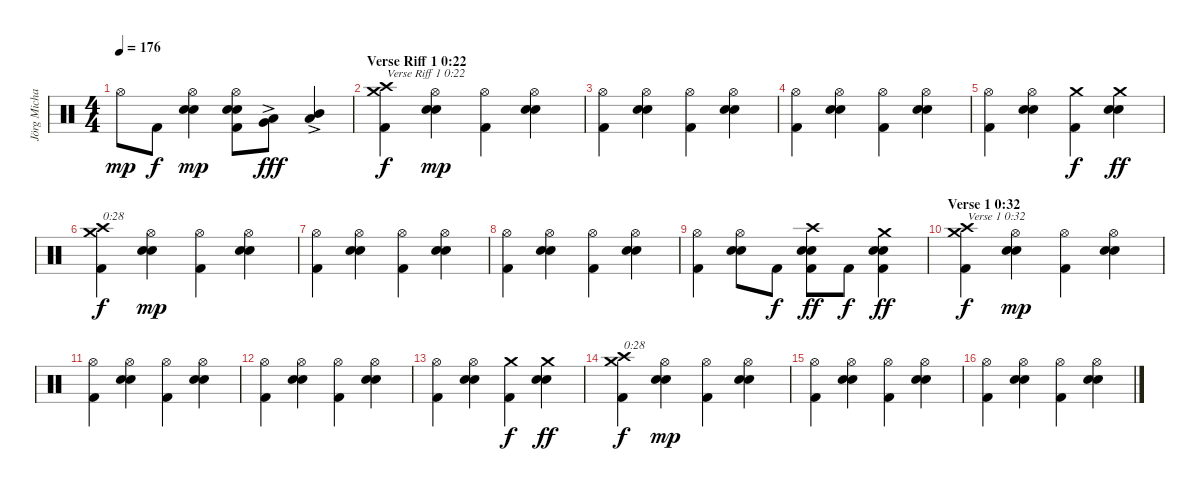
\track ("Jörg Michael" "Jörg Micha") {instrument percussion}
\staff {score}
\articulation defaults
\ts (4 4)
\tempo 176
\clef neutral
\ks c "Hi-Hat (open)".8{dy mp} "Kick (hit) 2".8{dy f}
("Snare (hit) 2" "Electric Snare (hit)" "Hi-Hat (open)").4{dy mp} ("Kick (hit) 2" "Snare (hit) 2" "Electric Snare (hit)" "Hi-Hat (open)").8 ("Very Low Tom (hit)"{ac} "Low Tom (hit)"{ac}).8{dy fff} ("Mid Tom (hit)"{ac} "Low Tom (hit)"{ac}).4 |
\section ("" "Verse Riff 1 0:22")
("Kick (hit) 2" "Crash high (hit)" "Crash medium (hit)").4{txt "Verse Riff 1 0:22" dy f} ("Snare (hit) 2" "Electric Snare (hit)" "Hi-Hat (open)").4{dy mp} ("Kick (hit) 2" "Hi-Hat (open)").4 ("Snare (hit) 2" "Electric Snare (hit)" "Hi-Hat (open)").4 |
("Kick (hit) 2" "Hi-Hat (open)").4 ("Snare (hit) 2" "Electric Snare (hit)" "Hi-Hat (open)").4 ("Kick (hit) 2" "Hi-Hat (open)").4 ("Snare (hit) 2" "Electric Snare (hit)" "Hi-Hat (open)").4 |
("Kick (hit) 2" "Hi-Hat (open)").4 ("Snare (hit) 2" "Electric Snare (hit)" "Hi-Hat (open)").4 ("Kick (hit) 2" "Hi-Hat (open)").4 ("Snare (hit) 2" "Electric Snare (hit)" "Hi-Hat (open)").4 |
("Kick (hit) 2" "Hi-Hat (open)").4 ("Snare (hit) 2" "Electric Snare (hit)" "Hi-Hat (open)").4 ("Kick (hit) 2" "Crash medium (hit)").4{dy f} ("Snare (hit) 2" "Electric Snare (hit)" "Crash medium (hit)").4{dy ff} |
("Kick (hit) 2" "Crash high (hit)" "Crash medium (hit)").4{txt "0:28" dy f} ("Snare (hit) 2" "Electric Snare (hit)" "Hi-Hat (open)").4{dy mp} ("Kick (hit) 2" "Hi-Hat (open)").4 ("Snare (hit) 2" "Electric Snare (hit)" "Hi-Hat (open)").4 |
("Kick (hit) 2" "Hi-Hat (open)").4 ("Snare (hit) 2" "Electric Snare (hit)" "Hi-Hat (open)").4 ("Kick (hit) 2" "Hi-Hat (open)").4 ("Snare (hit) 2" "Electric Snare (hit)" "Hi-Hat (open)").4 |
("Kick (hit) 2" "Hi-Hat (open)").4 ("Snare (hit) 2" "Electric Snare (hit)" "Hi-Hat (open)").4 ("Kick (hit) 2" "Hi-Hat (open)").4 ("Snare (hit) 2" "Electric Snare (hit)" "Hi-Hat (open)").4 |
("Kick (hit) 2" "Hi-Hat (open)").4 ("Snare (hit) 2" "Electric Snare (hit)" "Hi-Hat (open)").8 "Kick (hit) 2".8{dy f} ("Kick (hit) 2" "Snare (hit) 2" "Electric Snare (hit)" "Crash high (hit)").8{dy ff} "Kick (hit) 2".8{dy f} ("Kick (hit) 2" "Snare (hit) 2" "Electric Snare (hit)" "Crash medium (hit)").4{dy ff} |
\section ("" "Verse 1 0:32")
("Kick (hit) 2" "Crash high (hit)" "Crash medium (hit)").4{txt "Verse 1 0:32" dy f} ("Snare (hit) 2" "Electric Snare (hit)" "Hi-Hat (open)").4{dy mp} ("Kick (hit) 2" "Hi-Hat (open)").4 ("Snare (hit) 2" "Electric Snare (hit)" "Hi-Hat (open)").4 |
("Kick (hit) 2" "Hi-Hat (open)").4 ("Snare (hit) 2" "Electric Snare (hit)" "Hi-Hat (open)").4 ("Kick (hit) 2" "Hi-Hat (open)").4 ("Snare (hit) 2" "Electric Snare (hit)" "Hi-Hat (open)").4 |
("Kick (hit) 2" "Hi-Hat (open)").4 ("Snare (hit) 2" "Electric Snare (hit)" "Hi-Hat (open)").4 ("Kick (hit) 2" "Hi-Hat (open)").4 ("Snare (hit) 2" "Electric Snare (hit)" "Hi-Hat (open)").4 |
("Kick (hit) 2" "Hi-Hat (open)").4 ("Snare (hit) 2" "Electric Snare (hit)" "Hi-Hat (open)").4 ("Kick (hit) 2" "Crash medium (hit)").4{dy f} ("Snare (hit) 2" "Electric Snare (hit)" "Crash medium (hit)").4{dy ff} |
("Kick (hit) 2" "Crash high (hit)" "Crash medium (hit)").4{txt "0:28" dy f} ("Snare (hit) 2" "Electric Snare (hit)" "Hi-Hat (open)").4{dy mp} ("Kick (hit) 2" "Hi-Hat (open)").4 ("Snare (hit) 2" "Electric Snare (hit)" "Hi-Hat (open)").4 |
("Kick (hit) 2" "Hi-Hat (open)").4 ("Snare (hit) 2" "Electric Snare (hit)" "Hi-Hat (open)").4 ("Kick (hit) 2" "Hi-Hat (open)").4 ("Snare (hit) 2" "Electric Snare (hit)" "Hi-Hat (open)").4 |
("Kick (hit) 2" "Hi-Hat (open)").4 ("Snare (hit) 2" "Electric Snare (hit)" "Hi-Hat (open)").4 ("Kick (hit) 2" "Hi-Hat (open)").4 ("Snare (hit) 2" "Electric Snare (hit)" "Hi-Hat (open)").4
